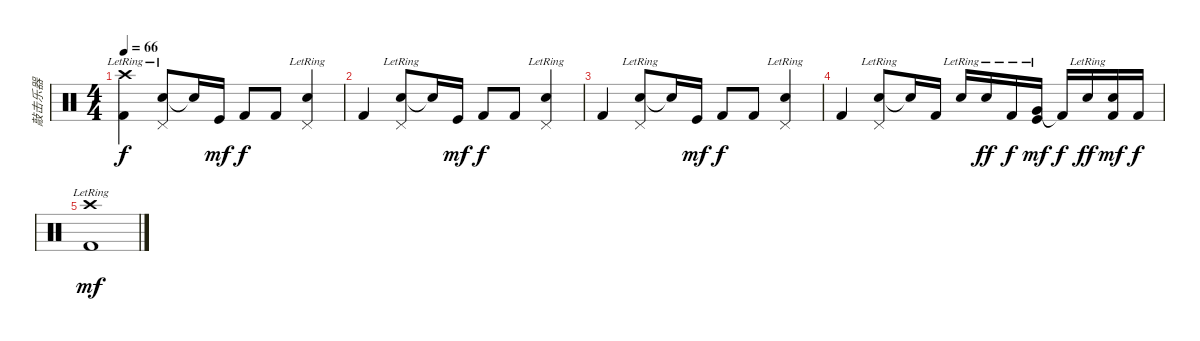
\track ("敲击乐器" "敲击乐器") {instrument percussion}
\staff {score}
\articulation defaults
\ts (4 4)
\tempo 66
\clef neutral
\ks c
("Kick (hit) 2" "Crash high (hit)"{lr}).4{dy f} ("Electric Snare (hit)" "Pedal Hi-Hat (hit)"{lr}).8 "Snare (hit)"{t}.16 "Kick (hit)".16{dy mf} "Kick (hit) 2".8{dy f} "Kick (hit) 2".8 ("Electric Snare (hit)" "Pedal Hi-Hat (hit)"{lr}).4 |
"Kick (hit) 2".4 ("Electric Snare (hit)" "Pedal Hi-Hat (hit)"{lr}).8 "Snare (hit)"{t}.16 "Kick (hit)".16{dy mf} "Kick (hit) 2".8{dy f} "Kick (hit) 2".8 ("Electric Snare (hit)" "Pedal Hi-Hat (hit)"{lr}).4 |
"Kick (hit) 2".4 ("Electric Snare (hit)" "Pedal Hi-Hat (hit)"{lr}).8 "Snare (hit)"{t}.16 "Kick (hit)".16{dy mf} "Kick (hit) 2".8{dy f} "Kick (hit) 2".8 ("Electric Snare (hit)" "Pedal Hi-Hat (hit)"{lr}).4 |
"Kick (hit) 2".4 ("Electric Snare (hit)" "Pedal Hi-Hat (hit)"{lr}).8 "Snare (hit)"{t}.16 "Kick (hit) 2".16 "Snare (hit) 2"{lr}.16 "Electric Snare (hit)"{lr}.16{dy ff} "Kick (hit) 2"{lr}.16{dy f} ("Very Low Tom (hit)"{lr} "Kick (hit)").16{dy mf} "Kick (hit) 2"{t}.16{dy f} "Snare (hit) 2"{lr}.16{dy ff} ("Electric Snare (hit)"{lr} "Kick (hit) 2"{lr}).16{dy mf} "Kick (hit) 2".16{dy f} |
("Kick (hit) 2" "Crash high (hit)"{lr}).1{dy mf}
